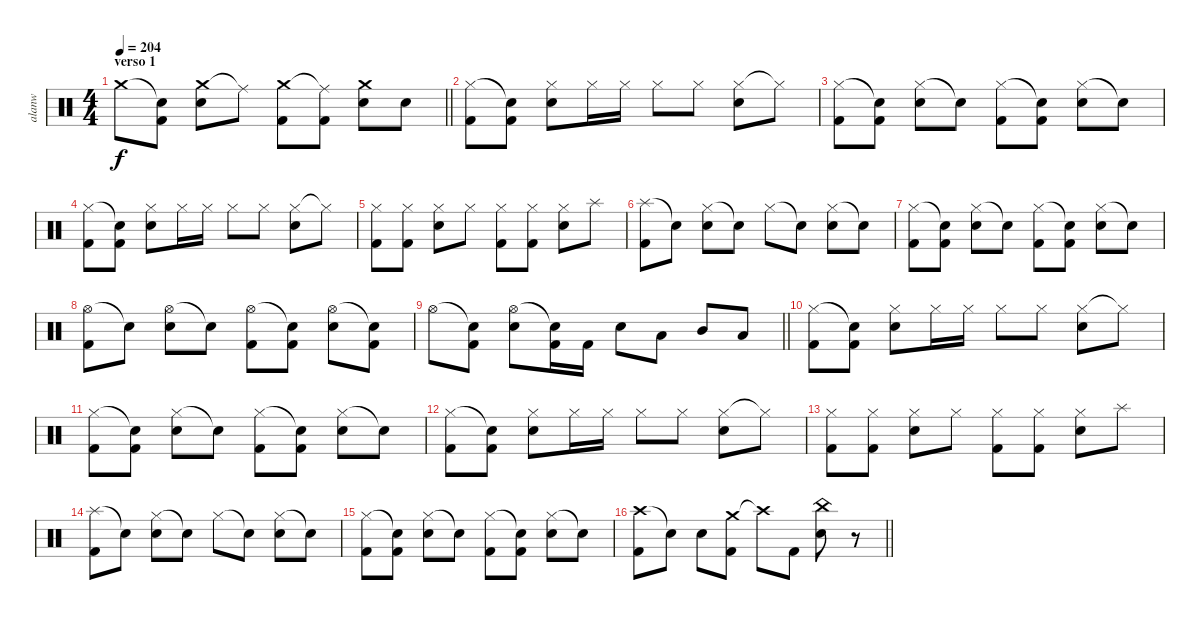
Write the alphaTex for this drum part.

\track ("alanw" "alanw") {instrument percussion}
\staff {score}
\articulation defaults
\ts (4 4)
\section ("" "verso 1")
\tempo 204
\clef neutral
\barLineRight lightlight
\ks c "Crash medium (hit)".8{dy f}
("Snare (hit)"{t} "Kick (hit) 2").8 ("Crash medium (hit)" "Electric Snare (hit)").8 "Ride (middle)"{t}.8 ("Crash medium (hit)" "Kick (hit) 2").8 ("Ride (middle)"{t} "Kick (hit) 2").8 ("Crash medium (hit)" "Electric Snare (hit)").8 "Electric Snare (hit)".8 |
("Hi-Hat (closed)" "Kick (hit) 2").8 ("Snare (hit)"{t} "Kick (hit) 2").8 ("Hi-Hat (closed)" "Electric Snare (hit)").8 "Hi-Hat (closed)".16 "Hi-Hat (closed)".16 "Hi-Hat (closed)".8 "Hi-Hat (closed)".8 ("Hi-Hat (closed)" "Electric Snare (hit)").8 "Hi-Hat (closed)"{t}.8 |
("Hi-Hat (closed)" "Kick (hit) 2").8 ("Snare (hit)"{t} "Kick (hit) 2").8 ("Hi-Hat (closed)" "Electric Snare (hit)").8 "Snare (hit)"{t}.8 ("Hi-Hat (closed)" "Kick (hit) 2").8 ("Snare (hit)"{t} "Kick (hit) 2").8 ("Hi-Hat (closed)" "Electric Snare (hit)").8 "Snare (hit)"{t}.8 |
("Hi-Hat (closed)" "Kick (hit) 2").8 ("Snare (hit)"{t} "Kick (hit) 2").8 ("Hi-Hat (closed)" "Electric Snare (hit)").8 "Hi-Hat (closed)".16 "Hi-Hat (closed)".16 "Hi-Hat (closed)".8 "Hi-Hat (closed)".8 ("Hi-Hat (closed)" "Electric Snare (hit)").8 "Hi-Hat (closed)"{t}.8 |
("Hi-Hat (closed)" "Kick (hit) 2").8 ("Hi-Hat (closed)" "Kick (hit) 2").8 ("Hi-Hat (closed)" "Electric Snare (hit)").8 "Hi-Hat (closed)".8 ("Hi-Hat (closed)" "Kick (hit) 2").8 ("Hi-Hat (closed)" "Kick (hit) 2").8 ("Hi-Hat (closed)" "Electric Snare (hit)").8 "Splash (hit)".8 |
("Splash (hit)" "Kick (hit) 2").8 "Snare (hit)"{t}.8 ("Hi-Hat (closed)" "Electric Snare (hit)").8 "Snare (hit)"{t}.8 "Hi-Hat (closed)".8 "Snare (hit)"{t}.8 ("Hi-Hat (closed)" "Electric Snare (hit)").8 "Snare (hit)"{t}.8 |
("Hi-Hat (closed)" "Kick (hit) 2").8 ("Snare (hit)"{t} "Kick (hit) 2").8 ("Hi-Hat (closed)" "Electric Snare (hit)").8 "Snare (hit)"{t}.8 ("Hi-Hat (closed)" "Kick (hit) 2").8 ("Snare (hit)"{t} "Kick (hit) 2").8 ("Hi-Hat (closed)" "Electric Snare (hit)").8 "Snare (hit)"{t}.8 |
("Hi-Hat (open)" "Kick (hit) 2").8 "Snare (hit)"{t}.8 ("Hi-Hat (open)" "Electric Snare (hit)").8 "Snare (hit)"{t}.8 ("Hi-Hat (open)" "Kick (hit) 2").8 ("Snare (hit)"{t} "Kick (hit) 2").8 ("Hi-Hat (open)" "Electric Snare (hit)").8 ("Snare (hit)"{t} "Kick (hit) 2").8 |
\barLineRight lightlight "Hi-Hat (open)".8
("Snare (hit)"{t} "Kick (hit) 2").8 ("Hi-Hat (open)" "Electric Snare (hit)").8 ("Snare (hit)"{t} "Kick (hit) 2").16 "Kick (hit) 2".16 "Electric Snare (hit)".8 "Low Tom (hit)".8 "Mid Tom (hit)".8 "Low Tom (hit)".8 |
\section ("" "")
("Hi-Hat (closed)" "Kick (hit) 2").8 ("Snare (hit)"{t} "Kick (hit) 2").8 ("Hi-Hat (closed)" "Electric Snare (hit)").8 "Hi-Hat (closed)".16 "Hi-Hat (closed)".16 "Hi-Hat (closed)".8 "Hi-Hat (closed)".8 ("Hi-Hat (closed)" "Electric Snare (hit)").8 "Hi-Hat (closed)"{t}.8 |
("Hi-Hat (closed)" "Kick (hit) 2").8 ("Snare (hit)"{t} "Kick (hit) 2").8 ("Hi-Hat (closed)" "Electric Snare (hit)").8 "Snare (hit)"{t}.8 ("Hi-Hat (closed)" "Kick (hit) 2").8 ("Snare (hit)"{t} "Kick (hit) 2").8 ("Hi-Hat (closed)" "Electric Snare (hit)").8 "Snare (hit)"{t}.8 |
("Hi-Hat (closed)" "Kick (hit) 2").8 ("Snare (hit)"{t} "Kick (hit) 2").8 ("Hi-Hat (closed)" "Electric Snare (hit)").8 "Hi-Hat (closed)".16 "Hi-Hat (closed)".16 "Hi-Hat (closed)".8 "Hi-Hat (closed)".8 ("Hi-Hat (closed)" "Electric Snare (hit)").8 "Hi-Hat (closed)"{t}.8 |
("Hi-Hat (closed)" "Kick (hit) 2").8 ("Hi-Hat (closed)" "Kick (hit) 2").8 ("Hi-Hat (closed)" "Electric Snare (hit)").8 "Hi-Hat (closed)".8 ("Hi-Hat (closed)" "Kick (hit) 2").8 ("Hi-Hat (closed)" "Kick (hit) 2").8 ("Hi-Hat (closed)" "Electric Snare (hit)").8 "Splash (hit)".8 |
("Splash (hit)" "Kick (hit) 2").8 "Snare (hit)"{t}.8 ("Hi-Hat (closed)" "Electric Snare (hit)").8 "Snare (hit)"{t}.8 "Hi-Hat (closed)".8 "Snare (hit)"{t}.8 ("Hi-Hat (closed)" "Electric Snare (hit)").8 "Snare (hit)"{t}.8 |
("Hi-Hat (closed)" "Kick (hit) 2").8 ("Snare (hit)"{t} "Kick (hit) 2").8 ("Hi-Hat (closed)" "Electric Snare (hit)").8 "Snare (hit)"{t}.8 ("Hi-Hat (closed)" "Kick (hit) 2").8 ("Snare (hit)"{t} "Kick (hit) 2").8 ("Hi-Hat (closed)" "Electric Snare (hit)").8 "Snare (hit)"{t}.8 |
\barLineRight lightlight
("Crash high (hit)" "Kick (hit) 2").8 "Snare (hit)"{t}.8 "Electric Snare (hit)".8 ("Crash medium (hit)" "Kick (hit) 2").8 "Crash high (hit)"{t}.8 "Kick (hit) 2".8 ("China (hit)" "Electric Snare (hit)").8 r.8
